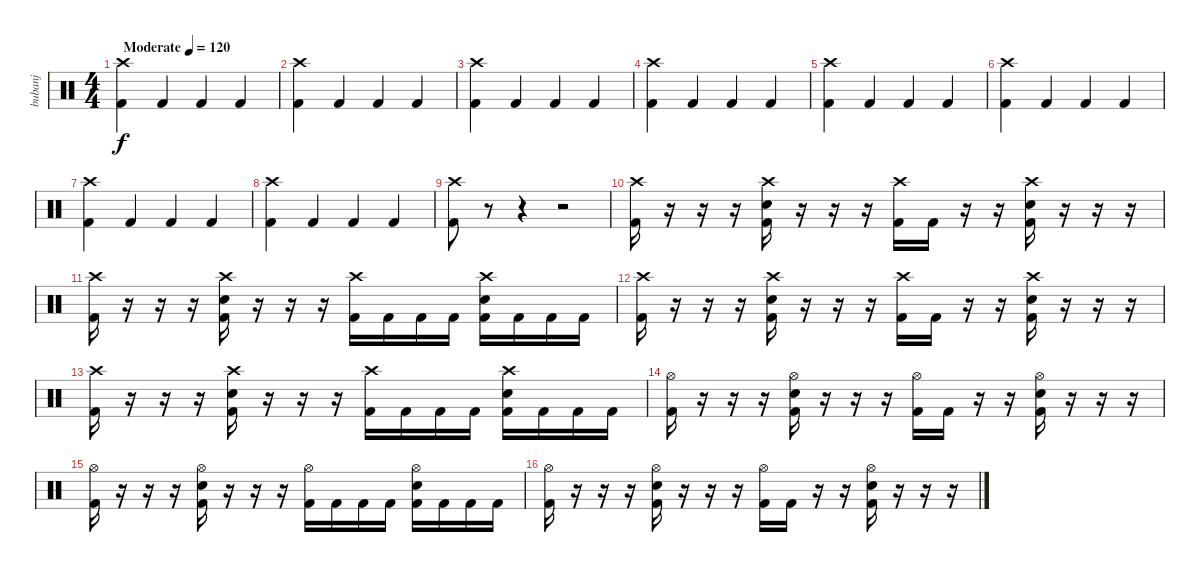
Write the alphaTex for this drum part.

\track ("bubanj" "bubanj") {instrument percussion}
\staff {score}
\articulation defaults
\ts (4 4)
\tempo (120 "Moderate")
\clef neutral
\ks c
("Crash high (hit)" "Kick (hit) 2").4{dy f} "Kick (hit) 2".4 "Kick (hit) 2".4 "Kick (hit) 2".4 |
("Crash high (hit)" "Kick (hit) 2").4 "Kick (hit) 2".4 "Kick (hit) 2".4 "Kick (hit) 2".4 |
("Crash high (hit)" "Kick (hit) 2").4 "Kick (hit) 2".4 "Kick (hit) 2".4 "Kick (hit) 2".4 |
("Crash high (hit)" "Kick (hit) 2").4 "Kick (hit) 2".4 "Kick (hit) 2".4 "Kick (hit) 2".4 |
("Crash high (hit)" "Kick (hit) 2").4 "Kick (hit) 2".4 "Kick (hit) 2".4 "Kick (hit) 2".4 |
("Crash high (hit)" "Kick (hit) 2").4 "Kick (hit) 2".4 "Kick (hit) 2".4 "Kick (hit) 2".4 |
("Crash high (hit)" "Kick (hit) 2").4 "Kick (hit) 2".4 "Kick (hit) 2".4 "Kick (hit) 2".4 |
("Crash high (hit)" "Kick (hit) 2").4 "Kick (hit) 2".4 "Kick (hit) 2".4 "Kick (hit) 2".4 |
("Crash high (hit)" "Kick (hit) 2").8 r.8 r.4 r.2 |
("Crash high (hit)" "Kick (hit) 2").16 r.16 r.16 r.16 ("Crash high (hit)" "Electric Snare (hit)" "Kick (hit) 2").16 r.16 r.16 r.16 ("Crash high (hit)" "Kick (hit) 2").16 "Kick (hit) 2".16 r.16 r.16 ("Crash high (hit)" "Electric Snare (hit)" "Kick (hit) 2").16 r.16 r.16 r.16 |
("Crash high (hit)" "Kick (hit) 2").16 r.16 r.16 r.16 ("Crash high (hit)" "Electric Snare (hit)" "Kick (hit) 2").16 r.16 r.16 r.16 ("Crash high (hit)" "Kick (hit) 2").16 "Kick (hit) 2".16 "Kick (hit) 2".16 "Kick (hit) 2".16 ("Crash high (hit)" "Electric Snare (hit)" "Kick (hit) 2").16 "Kick (hit) 2".16 "Kick (hit) 2".16 "Kick (hit) 2".16 |
("Crash high (hit)" "Kick (hit) 2").16 r.16 r.16 r.16 ("Crash high (hit)" "Electric Snare (hit)" "Kick (hit) 2").16 r.16 r.16 r.16 ("Crash high (hit)" "Kick (hit) 2").16 "Kick (hit) 2".16 r.16 r.16 ("Crash high (hit)" "Electric Snare (hit)" "Kick (hit) 2").16 r.16 r.16 r.16 |
("Crash high (hit)" "Kick (hit) 2").16 r.16 r.16 r.16 ("Crash high (hit)" "Electric Snare (hit)" "Kick (hit) 2").16 r.16 r.16 r.16 ("Crash high (hit)" "Kick (hit) 2").16 "Kick (hit) 2".16 "Kick (hit) 2".16 "Kick (hit) 2".16 ("Crash high (hit)" "Electric Snare (hit)" "Kick (hit) 2").16 "Kick (hit) 2".16 "Kick (hit) 2".16 "Kick (hit) 2".16 |
("Hi-Hat (open)" "Kick (hit) 2").16 r.16 r.16 r.16 ("Hi-Hat (open)" "Electric Snare (hit)" "Kick (hit) 2").16 r.16 r.16 r.16 ("Hi-Hat (open)" "Kick (hit) 2").16 "Kick (hit) 2".16 r.16 r.16 ("Hi-Hat (open)" "Electric Snare (hit)" "Kick (hit) 2").16 r.16 r.16 r.16 |
("Hi-Hat (open)" "Kick (hit) 2").16 r.16 r.16 r.16 ("Hi-Hat (open)" "Electric Snare (hit)" "Kick (hit) 2").16 r.16 r.16 r.16 ("Hi-Hat (open)" "Kick (hit) 2").16 "Kick (hit) 2".16 "Kick (hit) 2".16 "Kick (hit) 2".16 ("Hi-Hat (open)" "Electric Snare (hit)" "Kick (hit) 2").16 "Kick (hit) 2".16 "Kick (hit) 2".16 "Kick (hit) 2".16 |
("Hi-Hat (open)" "Kick (hit) 2").16 r.16 r.16 r.16 ("Hi-Hat (open)" "Electric Snare (hit)" "Kick (hit) 2").16 r.16 r.16 r.16 ("Hi-Hat (open)" "Kick (hit) 2").16 "Kick (hit) 2".16 r.16 r.16 ("Hi-Hat (open)" "Electric Snare (hit)" "Kick (hit) 2").16 r.16 r.16 r.16
